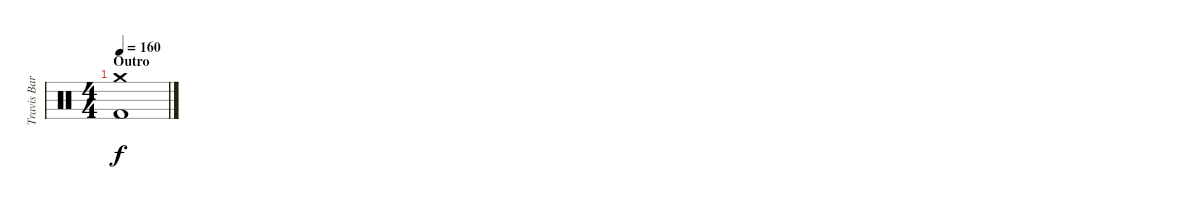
\track ("Travis Barker - Drums" "Travis Bar") {instrument percussion}
\staff {score}
\articulation defaults
\ts (4 4)
\section ("" "Outro")
\tempo 160
\clef neutral
\ks c
("Crash medium (hit)" "Kick (hit) 2").1{dy f}
